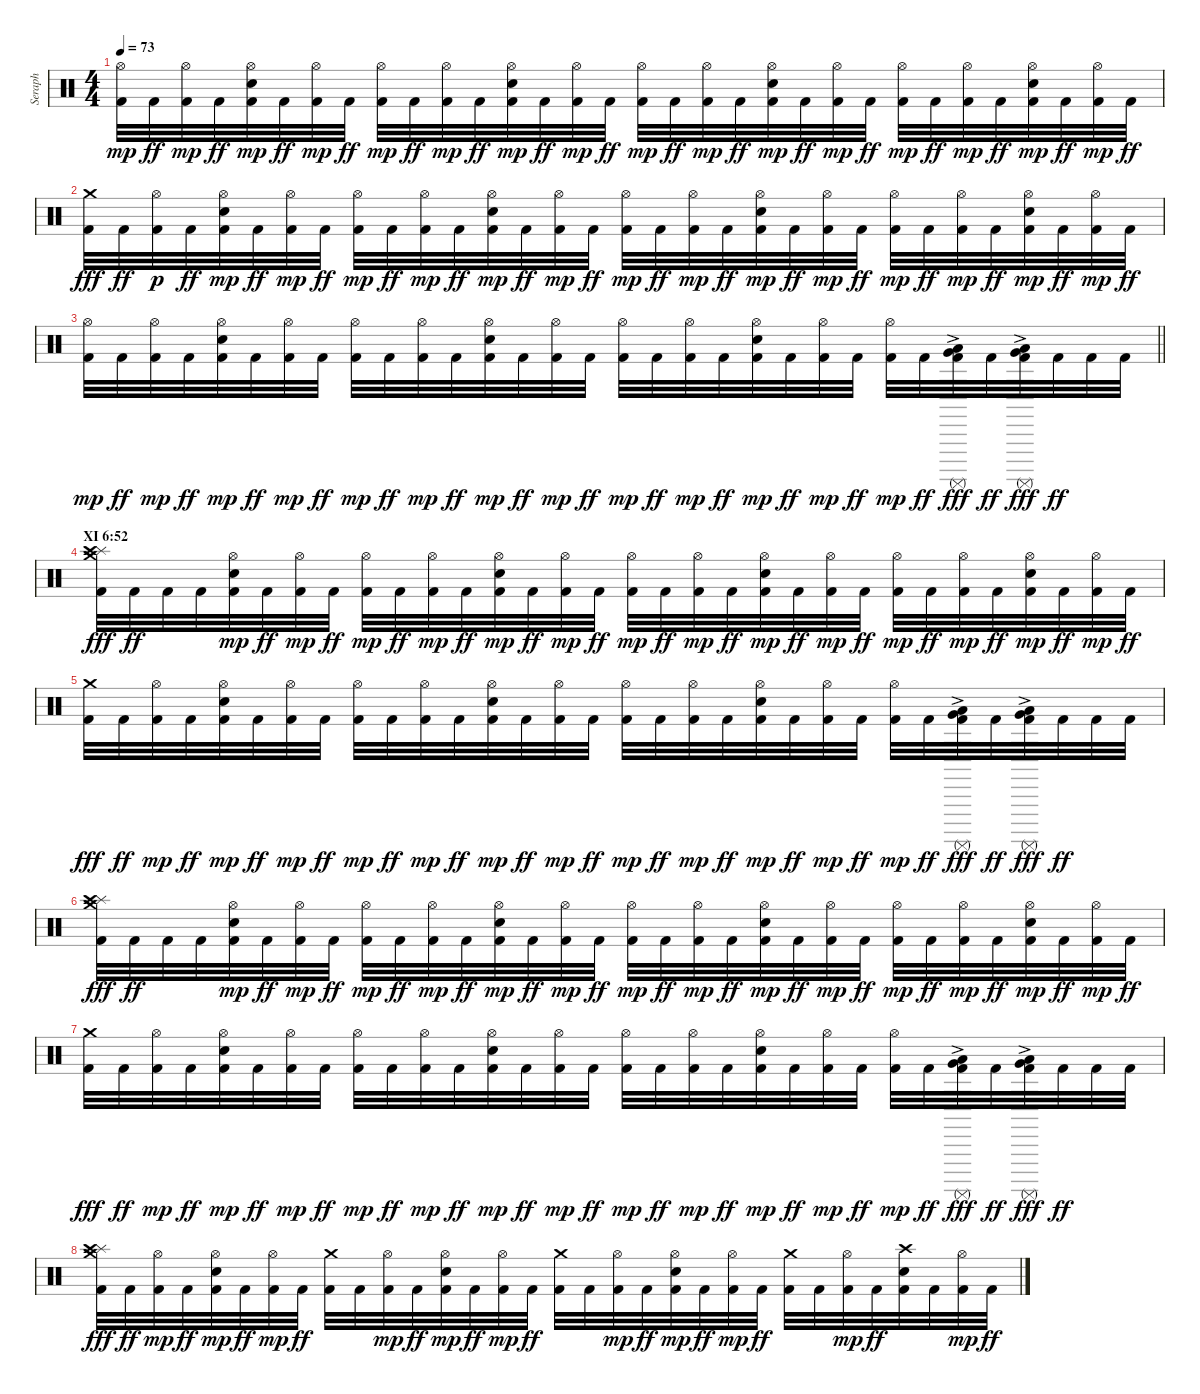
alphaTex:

\track ("Seraph" "Seraph") {instrument percussion}
\staff {score}
\articulation defaults
\ts (4 4)
\tempo 73
\clef neutral
\ks c
("Kick (hit) 2" "Hi-Hat (open)").32{dy mp} "Kick (hit) 2".32{dy ff} ("Kick (hit) 2" "Hi-Hat (open)").32{dy mp} "Kick (hit) 2".32{dy ff} ("Kick (hit) 2" "Electric Snare (hit)" "Hi-Hat (open)").32{dy mp} "Kick (hit) 2".32{dy ff} ("Kick (hit) 2" "Hi-Hat (open)").32{dy mp} "Kick (hit) 2".32{dy ff} ("Kick (hit) 2" "Hi-Hat (open)").32{dy mp} "Kick (hit) 2".32{dy ff} ("Kick (hit) 2" "Hi-Hat (open)").32{dy mp} "Kick (hit) 2".32{dy ff} ("Kick (hit) 2" "Electric Snare (hit)" "Hi-Hat (open)").32{dy mp} "Kick (hit) 2".32{dy ff} ("Kick (hit) 2" "Hi-Hat (open)").32{dy mp} "Kick (hit) 2".32{dy ff} ("Kick (hit) 2" "Hi-Hat (open)").32{dy mp} "Kick (hit) 2".32{dy ff} ("Kick (hit) 2" "Hi-Hat (open)").32{dy mp} "Kick (hit) 2".32{dy ff} ("Kick (hit) 2" "Electric Snare (hit)" "Hi-Hat (open)").32{dy mp} "Kick (hit) 2".32{dy ff} ("Kick (hit) 2" "Hi-Hat (open)").32{dy mp} "Kick (hit) 2".32{dy ff} ("Kick (hit) 2" "Hi-Hat (open)").32{dy mp} "Kick (hit) 2".32{dy ff} ("Kick (hit) 2" "Hi-Hat (open)").32{dy mp} "Kick (hit) 2".32{dy ff} ("Kick (hit) 2" "Electric Snare (hit)" "Hi-Hat (open)").32{dy mp} "Kick (hit) 2".32{dy ff} ("Kick (hit) 2" "Hi-Hat (open)").32{dy mp} "Kick (hit) 2".32{dy ff} |
("Kick (hit) 2" "Crash medium (hit)").32{dy fff} "Kick (hit) 2".32{dy ff} ("Kick (hit) 2" "Hi-Hat (open)").32{dy p} "Kick (hit) 2".32{dy ff} ("Kick (hit) 2" "Electric Snare (hit)" "Hi-Hat (open)").32{dy mp} "Kick (hit) 2".32{dy ff} ("Kick (hit) 2" "Hi-Hat (open)").32{dy mp} "Kick (hit) 2".32{dy ff} ("Kick (hit) 2" "Hi-Hat (open)").32{dy mp} "Kick (hit) 2".32{dy ff} ("Kick (hit) 2" "Hi-Hat (open)").32{dy mp} "Kick (hit) 2".32{dy ff} ("Kick (hit) 2" "Electric Snare (hit)" "Hi-Hat (open)").32{dy mp} "Kick (hit) 2".32{dy ff} ("Kick (hit) 2" "Hi-Hat (open)").32{dy mp} "Kick (hit) 2".32{dy ff} ("Kick (hit) 2" "Hi-Hat (open)").32{dy mp} "Kick (hit) 2".32{dy ff} ("Kick (hit) 2" "Hi-Hat (open)").32{dy mp} "Kick (hit) 2".32{dy ff} ("Kick (hit) 2" "Electric Snare (hit)" "Hi-Hat (open)").32{dy mp} "Kick (hit) 2".32{dy ff} ("Kick (hit) 2" "Hi-Hat (open)").32{dy mp} "Kick (hit) 2".32{dy ff} ("Kick (hit) 2" "Hi-Hat (open)").32{dy mp} "Kick (hit) 2".32{dy ff} ("Kick (hit) 2" "Hi-Hat (open)").32{dy mp} "Kick (hit) 2".32{dy ff} ("Kick (hit) 2" "Electric Snare (hit)" "Hi-Hat (open)").32{dy mp} "Kick (hit) 2".32{dy ff} ("Kick (hit) 2" "Hi-Hat (open)").32{dy mp} "Kick (hit) 2".32{dy ff} |
\barLineRight lightlight
("Kick (hit) 2" "Hi-Hat (open)").32{dy mp} "Kick (hit) 2".32{dy ff} ("Kick (hit) 2" "Hi-Hat (open)").32{dy mp} "Kick (hit) 2".32{dy ff} ("Kick (hit) 2" "Electric Snare (hit)" "Hi-Hat (open)").32{dy mp} "Kick (hit) 2".32{dy ff} ("Kick (hit) 2" "Hi-Hat (open)").32{dy mp} "Kick (hit) 2".32{dy ff} ("Kick (hit) 2" "Hi-Hat (open)").32{dy mp} "Kick (hit) 2".32{dy ff} ("Kick (hit) 2" "Hi-Hat (open)").32{dy mp} "Kick (hit) 2".32{dy ff} ("Kick (hit) 2" "Electric Snare (hit)" "Hi-Hat (open)").32{dy mp} "Kick (hit) 2".32{dy ff} ("Kick (hit) 2" "Hi-Hat (open)").32{dy mp} "Kick (hit) 2".32{dy ff} ("Kick (hit) 2" "Hi-Hat (open)").32{dy mp} "Kick (hit) 2".32{dy ff} ("Kick (hit) 2" "Hi-Hat (open)").32{dy mp} "Kick (hit) 2".32{dy ff} ("Kick (hit) 2" "Electric Snare (hit)" "Hi-Hat (open)").32{dy mp} "Kick (hit) 2".32{dy ff} ("Kick (hit) 2" "Hi-Hat (open)").32{dy mp} "Kick (hit) 2".32{dy ff} ("Kick (hit) 2" "Hi-Hat (open)").32{dy mp} "Kick (hit) 2".32{dy ff} ("Kick (hit) 2"{ac} "Surdo (mute)" "Low Tom (hit)"{ac} "Very Low Tom (hit)"{ac}).32{dy fff} "Kick (hit) 2".32{dy ff} ("Kick (hit) 2"{ac} "Surdo (mute)" "Low Tom (hit)"{ac} "Very Low Tom (hit)"{ac}).32{dy fff} "Kick (hit) 2".32{dy ff} "Kick (hit) 2".32 "Kick (hit) 2".32 |
\section ("" "XI 6:52")
("Kick (hit) 2" "Splash (hit)" "Crash high (hit)" "Crash medium (hit)").32{dy fff} "Kick (hit) 2".32{dy ff} "Kick (hit) 2".32 "Kick (hit) 2".32 ("Kick (hit) 2" "Electric Snare (hit)" "Hi-Hat (open)").32{dy mp} "Kick (hit) 2".32{dy ff} ("Kick (hit) 2" "Hi-Hat (open)").32{dy mp} "Kick (hit) 2".32{dy ff} ("Kick (hit) 2" "Hi-Hat (open)").32{dy mp} "Kick (hit) 2".32{dy ff} ("Kick (hit) 2" "Hi-Hat (open)").32{dy mp} "Kick (hit) 2".32{dy ff} ("Kick (hit) 2" "Electric Snare (hit)" "Hi-Hat (open)").32{dy mp} "Kick (hit) 2".32{dy ff} ("Kick (hit) 2" "Hi-Hat (open)").32{dy mp} "Kick (hit) 2".32{dy ff} ("Kick (hit) 2" "Hi-Hat (open)").32{dy mp} "Kick (hit) 2".32{dy ff} ("Kick (hit) 2" "Hi-Hat (open)").32{dy mp} "Kick (hit) 2".32{dy ff} ("Kick (hit) 2" "Electric Snare (hit)" "Hi-Hat (open)").32{dy mp} "Kick (hit) 2".32{dy ff} ("Kick (hit) 2" "Hi-Hat (open)").32{dy mp} "Kick (hit) 2".32{dy ff} ("Kick (hit) 2" "Hi-Hat (open)").32{dy mp} "Kick (hit) 2".32{dy ff} ("Kick (hit) 2" "Hi-Hat (open)").32{dy mp} "Kick (hit) 2".32{dy ff} ("Kick (hit) 2" "Electric Snare (hit)" "Hi-Hat (open)").32{dy mp} "Kick (hit) 2".32{dy ff} ("Kick (hit) 2" "Hi-Hat (open)").32{dy mp} "Kick (hit) 2".32{dy ff} |
("Kick (hit) 2" "Crash medium (hit)").32{dy fff} "Kick (hit) 2".32{dy ff} ("Kick (hit) 2" "Hi-Hat (open)").32{dy mp} "Kick (hit) 2".32{dy ff} ("Kick (hit) 2" "Electric Snare (hit)" "Hi-Hat (open)").32{dy mp} "Kick (hit) 2".32{dy ff} ("Kick (hit) 2" "Hi-Hat (open)").32{dy mp} "Kick (hit) 2".32{dy ff} ("Kick (hit) 2" "Hi-Hat (open)").32{dy mp} "Kick (hit) 2".32{dy ff} ("Kick (hit) 2" "Hi-Hat (open)").32{dy mp} "Kick (hit) 2".32{dy ff} ("Kick (hit) 2" "Electric Snare (hit)" "Hi-Hat (open)").32{dy mp} "Kick (hit) 2".32{dy ff} ("Kick (hit) 2" "Hi-Hat (open)").32{dy mp} "Kick (hit) 2".32{dy ff} ("Kick (hit) 2" "Hi-Hat (open)").32{dy mp} "Kick (hit) 2".32{dy ff} ("Kick (hit) 2" "Hi-Hat (open)").32{dy mp} "Kick (hit) 2".32{dy ff} ("Kick (hit) 2" "Electric Snare (hit)" "Hi-Hat (open)").32{dy mp} "Kick (hit) 2".32{dy ff} ("Kick (hit) 2" "Hi-Hat (open)").32{dy mp} "Kick (hit) 2".32{dy ff} ("Kick (hit) 2" "Hi-Hat (open)").32{dy mp} "Kick (hit) 2".32{dy ff} ("Kick (hit) 2"{ac} "Surdo (mute)" "Low Tom (hit)"{ac} "Very Low Tom (hit)"{ac}).32{dy fff} "Kick (hit) 2".32{dy ff} ("Kick (hit) 2"{ac} "Surdo (mute)" "Low Tom (hit)"{ac} "Very Low Tom (hit)"{ac}).32{dy fff} "Kick (hit) 2".32{dy ff} "Kick (hit) 2".32 "Kick (hit) 2".32 |
("Kick (hit) 2" "Splash (hit)" "Crash high (hit)" "Crash medium (hit)").32{dy fff} "Kick (hit) 2".32{dy ff} "Kick (hit) 2".32 "Kick (hit) 2".32 ("Kick (hit) 2" "Electric Snare (hit)" "Hi-Hat (open)").32{dy mp} "Kick (hit) 2".32{dy ff} ("Kick (hit) 2" "Hi-Hat (open)").32{dy mp} "Kick (hit) 2".32{dy ff} ("Kick (hit) 2" "Hi-Hat (open)").32{dy mp} "Kick (hit) 2".32{dy ff} ("Kick (hit) 2" "Hi-Hat (open)").32{dy mp} "Kick (hit) 2".32{dy ff} ("Kick (hit) 2" "Electric Snare (hit)" "Hi-Hat (open)").32{dy mp} "Kick (hit) 2".32{dy ff} ("Kick (hit) 2" "Hi-Hat (open)").32{dy mp} "Kick (hit) 2".32{dy ff} ("Kick (hit) 2" "Hi-Hat (open)").32{dy mp} "Kick (hit) 2".32{dy ff} ("Kick (hit) 2" "Hi-Hat (open)").32{dy mp} "Kick (hit) 2".32{dy ff} ("Kick (hit) 2" "Electric Snare (hit)" "Hi-Hat (open)").32{dy mp} "Kick (hit) 2".32{dy ff} ("Kick (hit) 2" "Hi-Hat (open)").32{dy mp} "Kick (hit) 2".32{dy ff} ("Kick (hit) 2" "Hi-Hat (open)").32{dy mp} "Kick (hit) 2".32{dy ff} ("Kick (hit) 2" "Hi-Hat (open)").32{dy mp} "Kick (hit) 2".32{dy ff} ("Kick (hit) 2" "Electric Snare (hit)" "Hi-Hat (open)").32{dy mp} "Kick (hit) 2".32{dy ff} ("Kick (hit) 2" "Hi-Hat (open)").32{dy mp} "Kick (hit) 2".32{dy ff} |
("Kick (hit) 2" "Crash medium (hit)").32{dy fff} "Kick (hit) 2".32{dy ff} ("Kick (hit) 2" "Hi-Hat (open)").32{dy mp} "Kick (hit) 2".32{dy ff} ("Kick (hit) 2" "Electric Snare (hit)" "Hi-Hat (open)").32{dy mp} "Kick (hit) 2".32{dy ff} ("Kick (hit) 2" "Hi-Hat (open)").32{dy mp} "Kick (hit) 2".32{dy ff} ("Kick (hit) 2" "Hi-Hat (open)").32{dy mp} "Kick (hit) 2".32{dy ff} ("Kick (hit) 2" "Hi-Hat (open)").32{dy mp} "Kick (hit) 2".32{dy ff} ("Kick (hit) 2" "Electric Snare (hit)" "Hi-Hat (open)").32{dy mp} "Kick (hit) 2".32{dy ff} ("Kick (hit) 2" "Hi-Hat (open)").32{dy mp} "Kick (hit) 2".32{dy ff} ("Kick (hit) 2" "Hi-Hat (open)").32{dy mp} "Kick (hit) 2".32{dy ff} ("Kick (hit) 2" "Hi-Hat (open)").32{dy mp} "Kick (hit) 2".32{dy ff} ("Kick (hit) 2" "Electric Snare (hit)" "Hi-Hat (open)").32{dy mp} "Kick (hit) 2".32{dy ff} ("Kick (hit) 2" "Hi-Hat (open)").32{dy mp} "Kick (hit) 2".32{dy ff} ("Kick (hit) 2" "Hi-Hat (open)").32{dy mp} "Kick (hit) 2".32{dy ff} ("Kick (hit) 2"{ac} "Surdo (mute)" "Low Tom (hit)"{ac} "Very Low Tom (hit)"{ac}).32{dy fff} "Kick (hit) 2".32{dy ff} ("Kick (hit) 2"{ac} "Surdo (mute)" "Low Tom (hit)"{ac} "Very Low Tom (hit)"{ac}).32{dy fff} "Kick (hit) 2".32{dy ff} "Kick (hit) 2".32 "Kick (hit) 2".32 |
("Kick (hit) 2" "Splash (hit)" "Crash high (hit)" "Crash medium (hit)").32{dy fff} "Kick (hit) 2".32{dy ff} ("Kick (hit) 2" "Hi-Hat (open)").32{dy mp} "Kick (hit) 2".32{dy ff} ("Kick (hit) 2" "Electric Snare (hit)" "Hi-Hat (open)").32{dy mp} "Kick (hit) 2".32{dy ff} ("Kick (hit) 2" "Hi-Hat (open)").32{dy mp} "Kick (hit) 2".32{dy ff} ("Kick (hit) 2" "Crash medium (hit)").32 "Kick (hit) 2".32 ("Kick (hit) 2" "Hi-Hat (open)").32{dy mp} "Kick (hit) 2".32{dy ff} ("Kick (hit) 2" "Electric Snare (hit)" "Hi-Hat (open)").32{dy mp} "Kick (hit) 2".32{dy ff} ("Kick (hit) 2" "Hi-Hat (open)").32{dy mp} "Kick (hit) 2".32{dy ff} ("Kick (hit) 2" "Crash medium (hit)").32 "Kick (hit) 2".32 ("Kick (hit) 2" "Hi-Hat (open)").32{dy mp} "Kick (hit) 2".32{dy ff} ("Kick (hit) 2" "Electric Snare (hit)" "Hi-Hat (open)").32{dy mp} "Kick (hit) 2".32{dy ff} ("Kick (hit) 2" "Hi-Hat (open)").32{dy mp} "Kick (hit) 2".32{dy ff} ("Kick (hit) 2" "Crash medium (hit)").32 "Kick (hit) 2".32 ("Kick (hit) 2" "Hi-Hat (open)").32{dy mp} "Kick (hit) 2".32{dy ff} ("Kick (hit) 2" "Electric Snare (hit)" "Crash high (hit)").32 "Kick (hit) 2".32 ("Kick (hit) 2" "Hi-Hat (open)").32{dy mp} "Kick (hit) 2".32{dy ff}
